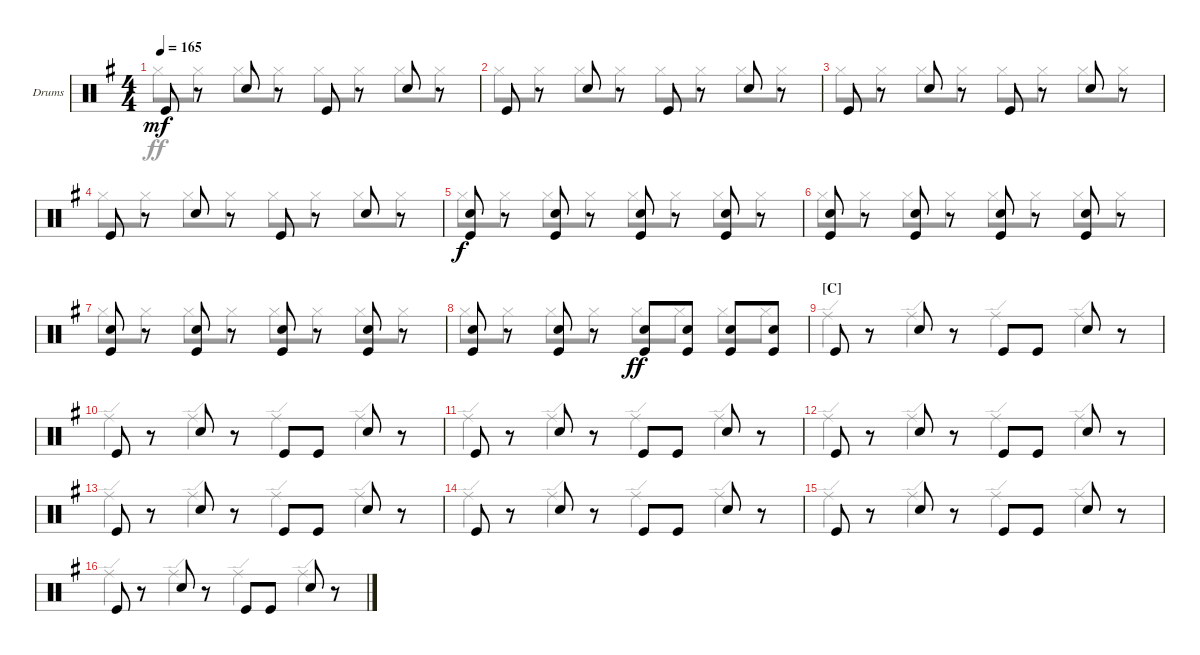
\defaultSystemsLayout 4
\bracketExtendMode groupsimilarinstruments
\firstSystemTrackNameOrientation horizontal
\otherSystemsTrackNameOrientation horizontal
\track ("Fabrizio Moretti" "Drums") {instrument percussion}
\staff {score}
\articulation defaults
\voice
\ts (4 4)
\tempo 165
\clef neutral
\ks g "Kick (hit)".8{dy mf}
r.8 "Snare (hit) 2".8 r.8 "Kick (hit)".8 r.8 "Snare (hit) 2".8 r.8 |
"Kick (hit)".8 r.8 "Snare (hit) 2".8 r.8 "Kick (hit)".8 r.8 "Snare (hit) 2".8 r.8 |
"Kick (hit)".8 r.8 "Snare (hit) 2".8 r.8 "Kick (hit)".8 r.8 "Snare (hit) 2".8 r.8 |
"Kick (hit)".8 r.8 "Snare (hit) 2".8 r.8 "Kick (hit)".8 r.8 "Snare (hit) 2".8 r.8 |
("Kick (hit)" "Snare (hit) 2").8{dy f} r.8 ("Kick (hit)" "Snare (hit) 2").8 r.8 ("Kick (hit)" "Snare (hit) 2").8 r.8 ("Kick (hit)" "Snare (hit) 2").8 r.8 |
("Kick (hit)" "Snare (hit) 2").8 r.8 ("Kick (hit)" "Snare (hit) 2").8 r.8 ("Kick (hit)" "Snare (hit) 2").8 r.8 ("Kick (hit)" "Snare (hit) 2").8 r.8 |
("Kick (hit)" "Snare (hit) 2").8 r.8 ("Kick (hit)" "Snare (hit) 2").8 r.8 ("Kick (hit)" "Snare (hit) 2").8 r.8 ("Kick (hit)" "Snare (hit) 2").8 r.8 |
("Kick (hit)" "Snare (hit) 2").8 r.8 ("Kick (hit)" "Snare (hit) 2").8 r.8 ("Kick (hit)" "Snare (hit) 2").8{dy ff} ("Kick (hit)" "Snare (hit) 2").8 ("Kick (hit)" "Snare (hit) 2").8 ("Kick (hit)" "Snare (hit) 2").8 |
\section ("C" "")
"Kick (hit)".8 r.8 "Snare (hit) 2".8 r.8 "Kick (hit)".8 "Kick (hit)".8 "Snare (hit) 2".8 r.8 |
"Kick (hit)".8 r.8 "Snare (hit) 2".8 r.8 "Kick (hit)".8 "Kick (hit)".8 "Snare (hit) 2".8 r.8 |
"Kick (hit)".8 r.8 "Snare (hit) 2".8 r.8 "Kick (hit)".8 "Kick (hit)".8 "Snare (hit) 2".8 r.8 |
"Kick (hit)".8 r.8 "Snare (hit) 2".8 r.8 "Kick (hit)".8 "Kick (hit)".8 "Snare (hit) 2".8 r.8 |
"Kick (hit)".8 r.8 "Snare (hit) 2".8 r.8 "Kick (hit)".8 "Kick (hit)".8 "Snare (hit) 2".8 r.8 |
"Kick (hit)".8 r.8 "Snare (hit) 2".8 r.8 "Kick (hit)".8 "Kick (hit)".8 "Snare (hit) 2".8 r.8 |
"Kick (hit)".8 r.8 "Snare (hit) 2".8 r.8 "Kick (hit)".8 "Kick (hit)".8 "Snare (hit) 2".8 r.8 |
"Kick (hit)".8 r.8 "Snare (hit) 2".8 r.8 "Kick (hit)".8 "Kick (hit)".8 "Snare (hit) 2".8 r.8
\voice
\clef neutral
\ottava regular
\simile none
\ks g "Hi-Hat (closed)".8{dy ff} "Hi-Hat (closed)".8 "Hi-Hat (closed)".8 "Hi-Hat (closed)".8 "Hi-Hat (closed)".8 "Hi-Hat (closed)".8 "Hi-Hat (closed)".8 "Hi-Hat (closed)".8
|
"Hi-Hat (closed)".8 "Hi-Hat (closed)".8 "Hi-Hat (closed)".8 "Hi-Hat (closed)".8 "Hi-Hat (closed)".8 "Hi-Hat (closed)".8 "Hi-Hat (closed)".8 "Hi-Hat (closed)".8 |
"Hi-Hat (closed)".8 "Hi-Hat (closed)".8 "Hi-Hat (closed)".8 "Hi-Hat (closed)".8 "Hi-Hat (closed)".8 "Hi-Hat (closed)".8 "Hi-Hat (closed)".8 "Hi-Hat (closed)".8 |
"Hi-Hat (closed)".8 "Hi-Hat (closed)".8 "Hi-Hat (closed)".8 "Hi-Hat (closed)".8 "Hi-Hat (closed)".8 "Hi-Hat (closed)".8 "Hi-Hat (closed)".8 "Hi-Hat (closed)".8 |
"Hi-Hat (closed)".8 "Hi-Hat (closed)".8 "Hi-Hat (closed)".8 "Hi-Hat (closed)".8 "Hi-Hat (closed)".8 "Hi-Hat (closed)".8 "Hi-Hat (closed)".8 "Hi-Hat (closed)".8 |
"Hi-Hat (closed)".8 "Hi-Hat (closed)".8 "Hi-Hat (closed)".8 "Hi-Hat (closed)".8 "Hi-Hat (closed)".8 "Hi-Hat (closed)".8 "Hi-Hat (closed)".8 "Hi-Hat (closed)".8 |
"Hi-Hat (closed)".8 "Hi-Hat (closed)".8 "Hi-Hat (closed)".8 "Hi-Hat (closed)".8 "Hi-Hat (closed)".8 "Hi-Hat (closed)".8 "Hi-Hat (closed)".8 "Hi-Hat (closed)".8 |
"Hi-Hat (closed)".8 "Hi-Hat (closed)".8 "Hi-Hat (closed)".8 "Hi-Hat (closed)".8 "Hi-Hat (closed)".8 "Hi-Hat (closed)".8 "Hi-Hat (closed)".8 "Hi-Hat (closed)".8 |
"Ride (edge)".4 "Ride (edge)".4 "Ride (edge)".4 "Ride (edge)".4 |
"Ride (edge)".4 "Ride (edge)".4 "Ride (edge)".4 "Ride (edge)".4 |
"Ride (edge)".4 "Ride (edge)".4 "Ride (edge)".4 "Ride (edge)".4 |
"Ride (edge)".4 "Ride (edge)".4 "Ride (edge)".4 "Ride (edge)".4 |
"Ride (edge)".4 "Ride (edge)".4 "Ride (edge)".4 "Ride (edge)".4 |
"Ride (edge)".4 "Ride (edge)".4 "Ride (edge)".4 "Ride (edge)".4 |
"Ride (edge)".4 "Ride (edge)".4 "Ride (edge)".4 "Ride (edge)".4 |
"Ride (edge)".4 "Ride (edge)".4 "Ride (edge)".4 "Ride (edge)".4
